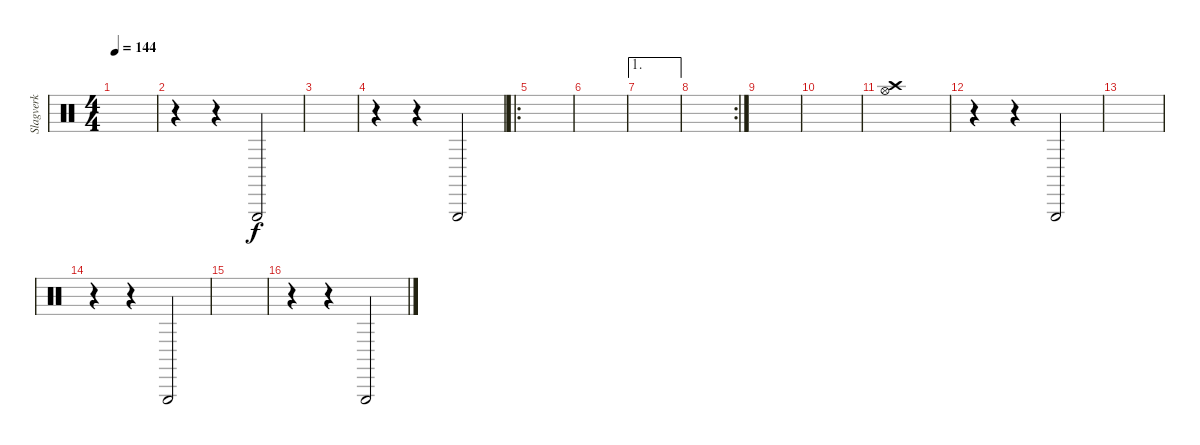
\track ("Slagverk" "Slagverk") {instrument percussion}
\staff {score}
\articulation defaults
\ts (4 4)
\tempo 144
\clef neutral
\ks c
|
r.4 r.4 "Triangle (hit)".2 |
|
r.4 r.4 "Triangle (hit)".2 |
\ro
|
|
\ae 1
|
\rc 2
|
|
|
("Hi-Hat (open)" "Crash high (hit)").1 |
r.4 r.4 "Triangle (hit)".2 |
|
r.4 r.4 "Triangle (hit)".2 |
|
r.4 r.4 "Triangle (hit)".2
